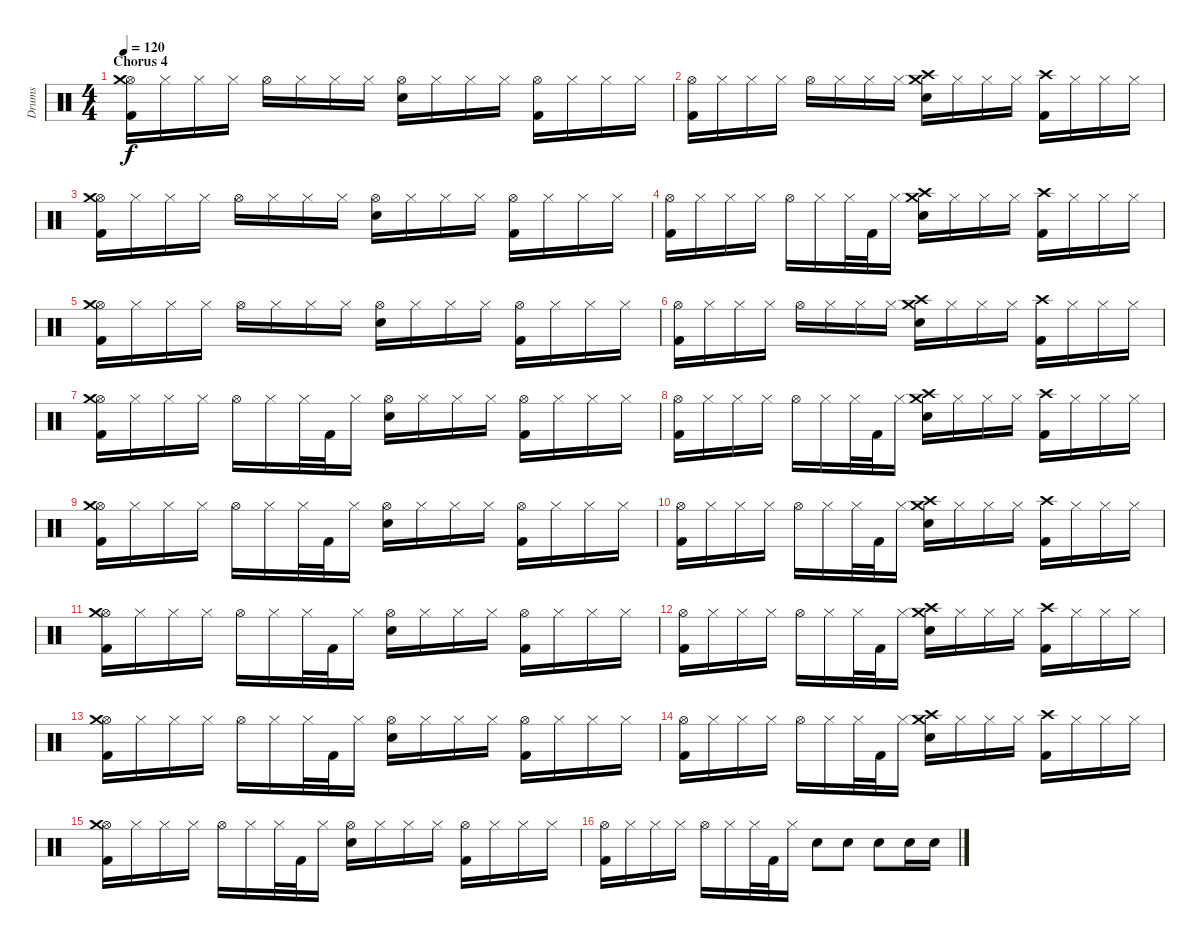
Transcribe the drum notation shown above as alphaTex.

\track ("Drums" "Drums") {instrument percussion}
\staff {score}
\articulation defaults
\ts (4 4)
\section ("" "Chorus 4")
\tempo 120
\clef neutral
\ks c
("Hi-Hat (open)" "Crash medium (hit)" "Kick (hit) 2").16{dy f} "Hi-Hat (closed)".16 "Hi-Hat (closed)".16 "Hi-Hat (closed)".16 "Hi-Hat (open)".16 "Hi-Hat (closed)".16 "Hi-Hat (closed)".16 "Hi-Hat (closed)".16 ("Hi-Hat (open)" "Snare (hit) 2").16 "Hi-Hat (closed)".16 "Hi-Hat (closed)".16 "Hi-Hat (closed)".16 ("Hi-Hat (open)" "Kick (hit) 2").16 "Hi-Hat (closed)".16 "Hi-Hat (closed)".16 "Hi-Hat (closed)".16 |
("Hi-Hat (open)" "Kick (hit) 2").16 "Hi-Hat (closed)".16 "Hi-Hat (closed)".16 "Hi-Hat (closed)".16 "Hi-Hat (open)".16 "Hi-Hat (closed)".16 "Hi-Hat (closed)".16 "Hi-Hat (closed)".16 ("Crash high (hit)" "Crash medium (hit)" "Snare (hit) 2").16 "Hi-Hat (closed)".16 "Hi-Hat (closed)".16 "Hi-Hat (closed)".16 ("Crash high (hit)" "Kick (hit) 2").16 "Hi-Hat (closed)".16 "Hi-Hat (closed)".16 "Hi-Hat (closed)".16 |
("Hi-Hat (open)" "Crash medium (hit)" "Kick (hit) 2").16 "Hi-Hat (closed)".16 "Hi-Hat (closed)".16 "Hi-Hat (closed)".16 "Hi-Hat (open)".16 "Hi-Hat (closed)".16 "Hi-Hat (closed)".16 "Hi-Hat (closed)".16 ("Hi-Hat (open)" "Snare (hit) 2").16 "Hi-Hat (closed)".16 "Hi-Hat (closed)".16 "Hi-Hat (closed)".16 ("Hi-Hat (open)" "Kick (hit) 2").16 "Hi-Hat (closed)".16 "Hi-Hat (closed)".16 "Hi-Hat (closed)".16 |
("Hi-Hat (open)" "Kick (hit) 2").16 "Hi-Hat (closed)".16 "Hi-Hat (closed)".16 "Hi-Hat (closed)".16 "Hi-Hat (open)".16 "Hi-Hat (closed)".16 "Hi-Hat (closed)".32 "Kick (hit) 2".32 "Hi-Hat (closed)".16 ("Crash high (hit)" "Crash medium (hit)" "Snare (hit) 2").16 "Hi-Hat (closed)".16 "Hi-Hat (closed)".16 "Hi-Hat (closed)".16 ("Crash high (hit)" "Kick (hit) 2").16 "Hi-Hat (closed)".16 "Hi-Hat (closed)".16 "Hi-Hat (closed)".16 |
("Hi-Hat (open)" "Crash medium (hit)" "Kick (hit) 2").16 "Hi-Hat (closed)".16 "Hi-Hat (closed)".16 "Hi-Hat (closed)".16 "Hi-Hat (open)".16 "Hi-Hat (closed)".16 "Hi-Hat (closed)".16 "Hi-Hat (closed)".16 ("Hi-Hat (open)" "Snare (hit) 2").16 "Hi-Hat (closed)".16 "Hi-Hat (closed)".16 "Hi-Hat (closed)".16 ("Hi-Hat (open)" "Kick (hit) 2").16 "Hi-Hat (closed)".16 "Hi-Hat (closed)".16 "Hi-Hat (closed)".16 |
("Hi-Hat (open)" "Kick (hit) 2").16 "Hi-Hat (closed)".16 "Hi-Hat (closed)".16 "Hi-Hat (closed)".16 "Hi-Hat (open)".16 "Hi-Hat (closed)".16 "Hi-Hat (closed)".16 "Hi-Hat (closed)".16 ("Crash high (hit)" "Crash medium (hit)" "Snare (hit) 2").16 "Hi-Hat (closed)".16 "Hi-Hat (closed)".16 "Hi-Hat (closed)".16 ("Crash high (hit)" "Kick (hit) 2").16 "Hi-Hat (closed)".16 "Hi-Hat (closed)".16 "Hi-Hat (closed)".16 |
("Hi-Hat (open)" "Crash medium (hit)" "Kick (hit) 2").16 "Hi-Hat (closed)".16 "Hi-Hat (closed)".16 "Hi-Hat (closed)".16 "Hi-Hat (open)".16 "Hi-Hat (closed)".16 "Hi-Hat (closed)".32 "Kick (hit) 2".32 "Hi-Hat (closed)".16 ("Hi-Hat (open)" "Snare (hit) 2").16 "Hi-Hat (closed)".16 "Hi-Hat (closed)".16 "Hi-Hat (closed)".16 ("Hi-Hat (open)" "Kick (hit) 2").16 "Hi-Hat (closed)".16 "Hi-Hat (closed)".16 "Hi-Hat (closed)".16 |
("Hi-Hat (open)" "Kick (hit) 2").16 "Hi-Hat (closed)".16 "Hi-Hat (closed)".16 "Hi-Hat (closed)".16 "Hi-Hat (open)".16 "Hi-Hat (closed)".16 "Hi-Hat (closed)".32 "Kick (hit) 2".32 "Hi-Hat (closed)".16 ("Crash high (hit)" "Crash medium (hit)" "Snare (hit) 2").16 "Hi-Hat (closed)".16 "Hi-Hat (closed)".16 "Hi-Hat (closed)".16 ("Crash high (hit)" "Kick (hit) 2").16 "Hi-Hat (closed)".16 "Hi-Hat (closed)".16 "Hi-Hat (closed)".16 |
("Hi-Hat (open)" "Crash medium (hit)" "Kick (hit) 2").16 "Hi-Hat (closed)".16 "Hi-Hat (closed)".16 "Hi-Hat (closed)".16 "Hi-Hat (open)".16 "Hi-Hat (closed)".16 "Hi-Hat (closed)".32 "Kick (hit) 2".32 "Hi-Hat (closed)".16 ("Hi-Hat (open)" "Snare (hit) 2").16 "Hi-Hat (closed)".16 "Hi-Hat (closed)".16 "Hi-Hat (closed)".16 ("Hi-Hat (open)" "Kick (hit) 2").16 "Hi-Hat (closed)".16 "Hi-Hat (closed)".16 "Hi-Hat (closed)".16 |
("Hi-Hat (open)" "Kick (hit) 2").16 "Hi-Hat (closed)".16 "Hi-Hat (closed)".16 "Hi-Hat (closed)".16 "Hi-Hat (open)".16 "Hi-Hat (closed)".16 "Hi-Hat (closed)".32 "Kick (hit) 2".32 "Hi-Hat (closed)".16 ("Crash high (hit)" "Crash medium (hit)" "Snare (hit) 2").16 "Hi-Hat (closed)".16 "Hi-Hat (closed)".16 "Hi-Hat (closed)".16 ("Crash high (hit)" "Kick (hit) 2").16 "Hi-Hat (closed)".16 "Hi-Hat (closed)".16 "Hi-Hat (closed)".16 |
("Hi-Hat (open)" "Crash medium (hit)" "Kick (hit) 2").16 "Hi-Hat (closed)".16 "Hi-Hat (closed)".16 "Hi-Hat (closed)".16 "Hi-Hat (open)".16 "Hi-Hat (closed)".16 "Hi-Hat (closed)".32 "Kick (hit) 2".32 "Hi-Hat (closed)".16 ("Hi-Hat (open)" "Snare (hit) 2").16 "Hi-Hat (closed)".16 "Hi-Hat (closed)".16 "Hi-Hat (closed)".16 ("Hi-Hat (open)" "Kick (hit) 2").16 "Hi-Hat (closed)".16 "Hi-Hat (closed)".16 "Hi-Hat (closed)".16 |
("Hi-Hat (open)" "Kick (hit) 2").16 "Hi-Hat (closed)".16 "Hi-Hat (closed)".16 "Hi-Hat (closed)".16 "Hi-Hat (open)".16 "Hi-Hat (closed)".16 "Hi-Hat (closed)".32 "Kick (hit) 2".32 "Hi-Hat (closed)".16 ("Crash medium (hit)" "Crash high (hit)" "Snare (hit) 2").16 "Hi-Hat (closed)".16 "Hi-Hat (closed)".16 "Hi-Hat (closed)".16 ("Crash high (hit)" "Kick (hit) 2").16 "Hi-Hat (closed)".16 "Hi-Hat (closed)".16 "Hi-Hat (closed)".16 |
("Hi-Hat (open)" "Crash medium (hit)" "Kick (hit) 2").16 "Hi-Hat (closed)".16 "Hi-Hat (closed)".16 "Hi-Hat (closed)".16 "Hi-Hat (open)".16 "Hi-Hat (closed)".16 "Hi-Hat (closed)".32 "Kick (hit) 2".32 "Hi-Hat (closed)".16 ("Hi-Hat (open)" "Snare (hit) 2").16 "Hi-Hat (closed)".16 "Hi-Hat (closed)".16 "Hi-Hat (closed)".16 ("Hi-Hat (open)" "Kick (hit) 2").16 "Hi-Hat (closed)".16 "Hi-Hat (closed)".16 "Hi-Hat (closed)".16 |
("Hi-Hat (open)" "Kick (hit) 2").16 "Hi-Hat (closed)".16 "Hi-Hat (closed)".16 "Hi-Hat (closed)".16 "Hi-Hat (open)".16 "Hi-Hat (closed)".16 "Hi-Hat (closed)".32 "Kick (hit) 2".32 "Hi-Hat (closed)".16 ("Crash high (hit)" "Crash medium (hit)" "Snare (hit) 2").16 "Hi-Hat (closed)".16 "Hi-Hat (closed)".16 "Hi-Hat (closed)".16 ("Crash high (hit)" "Kick (hit) 2").16 "Hi-Hat (closed)".16 "Hi-Hat (closed)".16 "Hi-Hat (closed)".16 |
("Hi-Hat (open)" "Crash medium (hit)" "Kick (hit) 2").16 "Hi-Hat (closed)".16 "Hi-Hat (closed)".16 "Hi-Hat (closed)".16 "Hi-Hat (open)".16 "Hi-Hat (closed)".16 "Hi-Hat (closed)".32 "Kick (hit) 2".32 "Hi-Hat (closed)".16 ("Hi-Hat (open)" "Snare (hit) 2").16 "Hi-Hat (closed)".16 "Hi-Hat (closed)".16 "Hi-Hat (closed)".16 ("Hi-Hat (open)" "Kick (hit) 2").16 "Hi-Hat (closed)".16 "Hi-Hat (closed)".16 "Hi-Hat (closed)".16 |
("Hi-Hat (open)" "Kick (hit) 2").16 "Hi-Hat (closed)".16 "Hi-Hat (closed)".16 "Hi-Hat (closed)".16 "Hi-Hat (open)".16 "Hi-Hat (closed)".16 "Hi-Hat (closed)".32 "Kick (hit) 2".32 "Hi-Hat (closed)".16 "Snare (hit) 2".8 "Snare (hit) 2".8 "Snare (hit) 2".8 "Snare (hit) 2".16 "Snare (hit) 2".16
